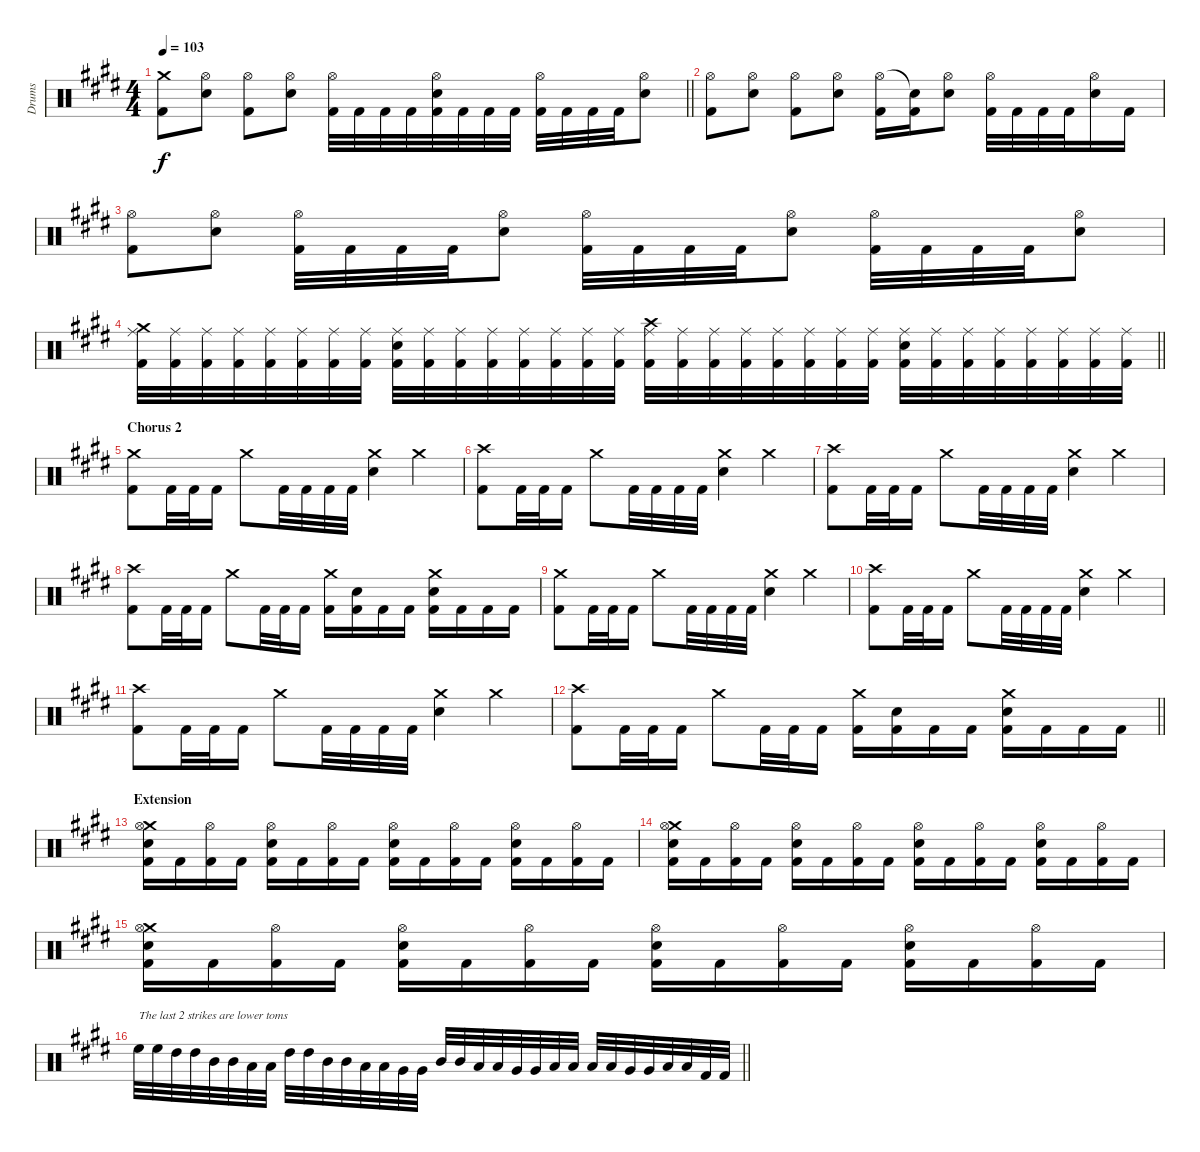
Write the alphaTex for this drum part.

\track ("Drums" "Drums") {instrument percussion}
\staff {score}
\articulation defaults
\ts (4 4)
\tempo 103
\clef neutral
\barLineRight lightlight
\ks c#minor
("Crash medium (hit)" "Kick (hit) 2").8{dy f} ("Hi-Hat (open)" "Snare (hit) 2").8 ("Hi-Hat (open)" "Kick (hit) 2").8 ("Hi-Hat (open)" "Snare (hit) 2").8 ("Hi-Hat (open)" "Kick (hit) 2").32 "Kick (hit) 2".32 "Kick (hit) 2".32 "Kick (hit) 2".32 ("Hi-Hat (open)" "Snare (hit) 2" "Kick (hit) 2").32 "Kick (hit) 2".32 "Kick (hit) 2".32 "Kick (hit) 2".32 ("Hi-Hat (open)" "Kick (hit) 2").32 "Kick (hit) 2".32 "Kick (hit) 2".32 "Kick (hit) 2".32 ("Hi-Hat (open)" "Snare (hit) 2").8 |
("Hi-Hat (open)" "Kick (hit) 2").8 ("Hi-Hat (open)" "Snare (hit) 2").8 ("Hi-Hat (open)" "Kick (hit) 2").8 ("Hi-Hat (open)" "Snare (hit) 2").8 ("Hi-Hat (open)" "Kick (hit) 2").16 ("Snare (hit)"{t} "Kick (hit) 2").16 ("Hi-Hat (open)" "Snare (hit) 2").8 ("Hi-Hat (open)" "Kick (hit) 2").32 "Kick (hit) 2".32 "Kick (hit) 2".32 "Kick (hit) 2".32 ("Hi-Hat (open)" "Snare (hit) 2").16 "Kick (hit) 2".16 |
("Hi-Hat (open)" "Kick (hit) 2").8 ("Hi-Hat (open)" "Snare (hit) 2").8 ("Hi-Hat (open)" "Kick (hit) 2").32 "Kick (hit) 2".32 "Kick (hit) 2".32 "Kick (hit) 2".32 ("Hi-Hat (open)" "Snare (hit) 2").8 ("Hi-Hat (open)" "Kick (hit) 2").32 "Kick (hit) 2".32 "Kick (hit) 2".32 "Kick (hit) 2".32 ("Hi-Hat (open)" "Snare (hit) 2").8 ("Hi-Hat (open)" "Kick (hit) 2").32 "Kick (hit) 2".32 "Kick (hit) 2".32 "Kick (hit) 2".32 ("Hi-Hat (open)" "Snare (hit) 2").8 |
\barLineRight lightlight
("Crash medium (hit)" "Ride (middle)" "Kick (hit) 2").32 ("Ride (middle)" "Kick (hit) 2").32 ("Ride (middle)" "Kick (hit) 2").32 ("Ride (middle)" "Kick (hit) 2").32 ("Ride (middle)" "Kick (hit) 2").32 ("Ride (middle)" "Kick (hit) 2").32 ("Ride (middle)" "Kick (hit) 2").32 ("Ride (middle)" "Kick (hit) 2").32 ("Snare (hit) 2" "Ride (middle)" "Kick (hit) 2").32 ("Ride (middle)" "Kick (hit) 2").32 ("Ride (middle)" "Kick (hit) 2").32 ("Ride (middle)" "Kick (hit) 2").32 ("Ride (middle)" "Kick (hit) 2").32 ("Ride (middle)" "Kick (hit) 2").32 ("Ride (middle)" "Kick (hit) 2").32 ("Ride (middle)" "Kick (hit) 2").32 ("Crash high (hit)" "Ride (middle)" "Kick (hit) 2").32 ("Ride (middle)" "Kick (hit) 2").32 ("Ride (middle)" "Kick (hit) 2").32 ("Ride (middle)" "Kick (hit) 2").32 ("Ride (middle)" "Kick (hit) 2").32 ("Ride (middle)" "Kick (hit) 2").32 ("Ride (middle)" "Kick (hit) 2").32 ("Ride (middle)" "Kick (hit) 2").32 ("Snare (hit) 2" "Ride (middle)" "Kick (hit) 2").32 ("Ride (middle)" "Kick (hit) 2").32 ("Ride (middle)" "Kick (hit) 2").32 ("Ride (middle)" "Kick (hit) 2").32 ("Ride (middle)" "Kick (hit) 2").32 ("Ride (middle)" "Kick (hit) 2").32 ("Ride (middle)" "Kick (hit) 2").32 ("Ride (middle)" "Kick (hit) 2").32 |
\section ("" "Chorus 2")
("Crash medium (hit)" "Kick (hit) 2").8 "Kick (hit) 2".32 "Kick (hit) 2".32 "Kick (hit) 2".16 "Crash medium (hit)".8 "Kick (hit) 2".32 "Kick (hit) 2".32 "Kick (hit) 2".32 "Kick (hit) 2".32 ("Crash medium (hit)" "Snare (hit) 2").4 "Crash medium (hit)".4 |
("Crash high (hit)" "Kick (hit) 2").8 "Kick (hit) 2".32 "Kick (hit) 2".32 "Kick (hit) 2".16 "Crash medium (hit)".8 "Kick (hit) 2".32 "Kick (hit) 2".32 "Kick (hit) 2".32 "Kick (hit) 2".32 ("Crash medium (hit)" "Snare (hit) 2").4 "Crash medium (hit)".4 |
("Crash high (hit)" "Kick (hit) 2").8 "Kick (hit) 2".32 "Kick (hit) 2".32 "Kick (hit) 2".16 "Crash medium (hit)".8 "Kick (hit) 2".32 "Kick (hit) 2".32 "Kick (hit) 2".32 "Kick (hit) 2".32 ("Crash medium (hit)" "Snare (hit) 2").4 "Crash medium (hit)".4 |
("Crash high (hit)" "Kick (hit) 2").8 "Kick (hit) 2".32 "Kick (hit) 2".32 "Kick (hit) 2".16 "Crash medium (hit)".8 "Kick (hit) 2".32 "Kick (hit) 2".32 "Kick (hit) 2".16 ("Crash medium (hit)" "Kick (hit) 2").16 ("Snare (hit) 2" "Kick (hit) 2").16 "Kick (hit) 2".16 "Kick (hit) 2".16 ("Crash medium (hit)" "Snare (hit) 2" "Kick (hit) 2").16 "Kick (hit) 2".16 "Kick (hit) 2".16 "Kick (hit) 2".16 |
("Crash medium (hit)" "Kick (hit) 2").8 "Kick (hit) 2".32 "Kick (hit) 2".32 "Kick (hit) 2".16 "Crash medium (hit)".8 "Kick (hit) 2".32 "Kick (hit) 2".32 "Kick (hit) 2".32 "Kick (hit) 2".32 ("Crash medium (hit)" "Snare (hit) 2").4 "Crash medium (hit)".4 |
("Crash high (hit)" "Kick (hit) 2").8 "Kick (hit) 2".32 "Kick (hit) 2".32 "Kick (hit) 2".16 "Crash medium (hit)".8 "Kick (hit) 2".32 "Kick (hit) 2".32 "Kick (hit) 2".32 "Kick (hit) 2".32 ("Crash medium (hit)" "Snare (hit) 2").4 "Crash medium (hit)".4 |
("Crash high (hit)" "Kick (hit) 2").8 "Kick (hit) 2".32 "Kick (hit) 2".32 "Kick (hit) 2".16 "Crash medium (hit)".8 "Kick (hit) 2".32 "Kick (hit) 2".32 "Kick (hit) 2".32 "Kick (hit) 2".32 ("Crash medium (hit)" "Snare (hit) 2").4 "Crash medium (hit)".4 |
\barLineRight lightlight
("Crash high (hit)" "Kick (hit) 2").8 "Kick (hit) 2".32 "Kick (hit) 2".32 "Kick (hit) 2".16 "Crash medium (hit)".8 "Kick (hit) 2".32 "Kick (hit) 2".32 "Kick (hit) 2".16 ("Crash medium (hit)" "Kick (hit) 2").16 ("Snare (hit) 2" "Kick (hit) 2").16 "Kick (hit) 2".16 "Kick (hit) 2".16 ("Crash medium (hit)" "Snare (hit) 2" "Kick (hit) 2").16 "Kick (hit) 2".16 "Kick (hit) 2".16 "Kick (hit) 2".16 |
\section ("" "Extension")
("Crash medium (hit)" "Snare (hit) 2" "Hi-Hat (open)" "Kick (hit) 2").16 "Kick (hit) 2".16 ("Hi-Hat (open)" "Kick (hit) 2").16 "Kick (hit) 2".16 ("Snare (hit) 2" "Hi-Hat (open)" "Kick (hit) 2").16 "Kick (hit) 2".16 ("Hi-Hat (open)" "Kick (hit) 2").16 "Kick (hit) 2".16 ("Snare (hit) 2" "Hi-Hat (open)" "Kick (hit) 2").16 "Kick (hit) 2".16 ("Hi-Hat (open)" "Kick (hit) 2").16 "Kick (hit) 2".16 ("Snare (hit) 2" "Hi-Hat (open)" "Kick (hit) 2").16 "Kick (hit) 2".16 ("Hi-Hat (open)" "Kick (hit) 2").16 "Kick (hit) 2".16 |
("Crash medium (hit)" "Snare (hit) 2" "Hi-Hat (open)" "Kick (hit) 2").16 "Kick (hit) 2".16 ("Hi-Hat (open)" "Kick (hit) 2").16 "Kick (hit) 2".16 ("Snare (hit) 2" "Hi-Hat (open)" "Kick (hit) 2").16 "Kick (hit) 2".16 ("Hi-Hat (open)" "Kick (hit) 2").16 "Kick (hit) 2".16 ("Snare (hit) 2" "Hi-Hat (open)" "Kick (hit) 2").16 "Kick (hit) 2".16 ("Hi-Hat (open)" "Kick (hit) 2").16 "Kick (hit) 2".16 ("Snare (hit) 2" "Hi-Hat (open)" "Kick (hit) 2").16 "Kick (hit) 2".16 ("Hi-Hat (open)" "Kick (hit) 2").16 "Kick (hit) 2".16 |
("Crash medium (hit)" "Snare (hit) 2" "Hi-Hat (open)" "Kick (hit) 2").16 "Kick (hit) 2".16 ("Hi-Hat (open)" "Kick (hit) 2").16 "Kick (hit) 2".16 ("Snare (hit) 2" "Hi-Hat (open)" "Kick (hit) 2").16 "Kick (hit) 2".16 ("Hi-Hat (open)" "Kick (hit) 2").16 "Kick (hit) 2".16 ("Snare (hit) 2" "Hi-Hat (open)" "Kick (hit) 2").16 "Kick (hit) 2".16 ("Hi-Hat (open)" "Kick (hit) 2").16 "Kick (hit) 2".16 ("Snare (hit) 2" "Hi-Hat (open)" "Kick (hit) 2").16 "Kick (hit) 2".16 ("Hi-Hat (open)" "Kick (hit) 2").16 "Kick (hit) 2".16 |
\barLineRight lightlight "High Floor Tom (hit)".32{txt "The last 2 strikes are lower toms"} "High Floor Tom (hit)".32 "High Tom (hit)".32 "High Tom (hit)".32 "Mid Tom (hit)".32 "Mid Tom (hit)".32 "Low Tom (hit)".32 "Low Tom (hit)".32 "High Tom (hit)".32 "High Tom (hit)".32 "Mid Tom (hit)".32 "Mid Tom (hit)".32 "Low Tom (hit)".32 "Low Tom (hit)".32 "Very Low Tom (hit)".32 "Very Low Tom (hit)".32 "Mid Tom (hit)".32 "Mid Tom (hit)".32 "Low Tom (hit)".32 "Low Tom (hit)".32 "Very Low Tom (hit)".32 "Very Low Tom (hit)".32 "Low Floor Tom (hit)".32 "Low Floor Tom (hit)".32 "Low Tom (hit)".32 "Low Tom (hit)".32 "Very Low Tom (hit)".32 "Very Low Tom (hit)".32 "Low Floor Tom (hit)".32 "Low Floor Tom (hit)".32 "Kick (hit) 2".32 "Kick (hit) 2".32
